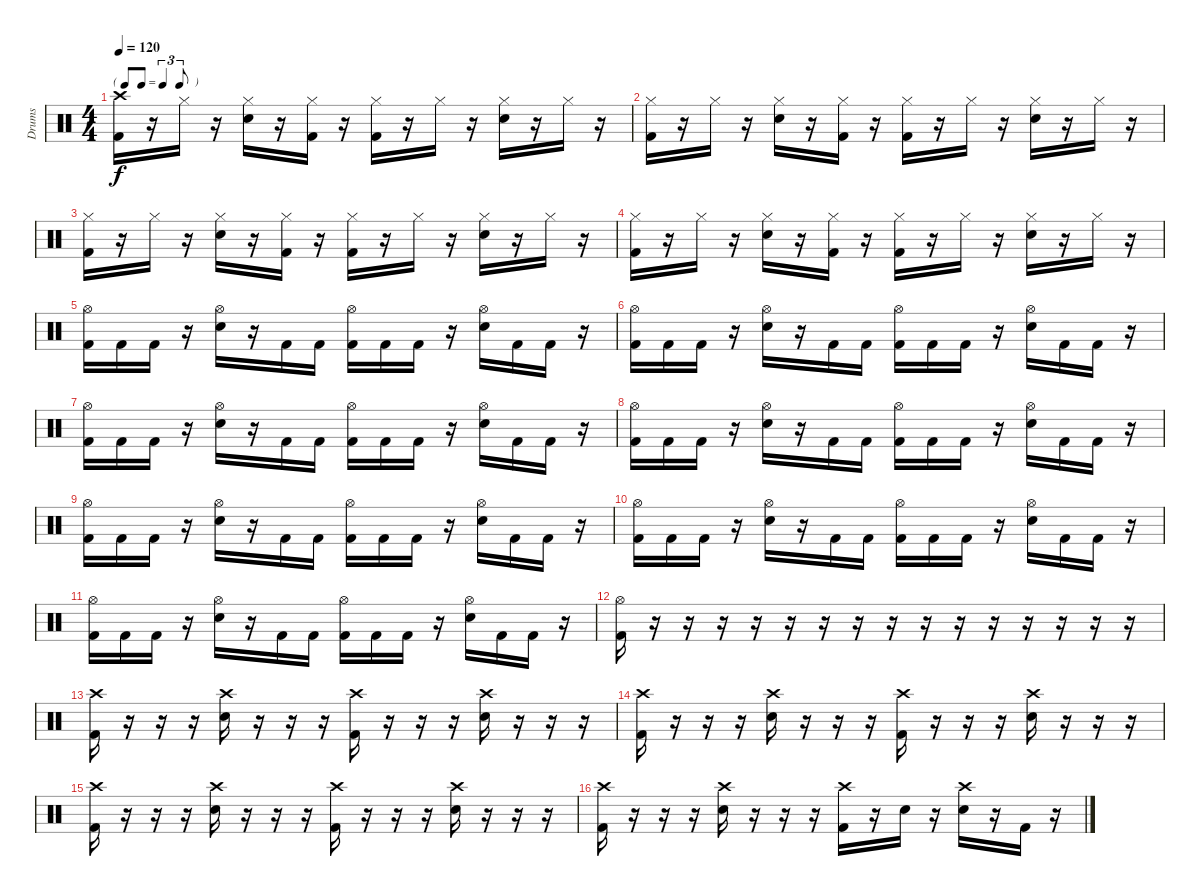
\track ("Drums" "Drums") {instrument percussion}
\staff {score}
\articulation defaults
\ts (4 4)
\tf triplet8th
\tempo 120
\clef neutral
\ks c
("Crash high (hit)" "Kick (hit) 2").16{dy f} r.16 "Hi-Hat (closed)".16 r.16 ("Hi-Hat (closed)" "Electric Snare (hit)").16 r.16 ("Hi-Hat (closed)" "Kick (hit) 2").16 r.16 ("Hi-Hat (closed)" "Kick (hit) 2").16 r.16 "Hi-Hat (closed)".16 r.16 ("Hi-Hat (closed)" "Electric Snare (hit)").16 r.16 "Hi-Hat (closed)".16 r.16 |
("Hi-Hat (closed)" "Kick (hit) 2").16 r.16 "Hi-Hat (closed)".16 r.16 ("Hi-Hat (closed)" "Electric Snare (hit)").16 r.16 ("Hi-Hat (closed)" "Kick (hit) 2").16 r.16 ("Hi-Hat (closed)" "Kick (hit) 2").16 r.16 "Hi-Hat (closed)".16 r.16 ("Hi-Hat (closed)" "Electric Snare (hit)").16 r.16 "Hi-Hat (closed)".16 r.16 |
("Hi-Hat (closed)" "Kick (hit) 2").16 r.16 "Hi-Hat (closed)".16 r.16 ("Hi-Hat (closed)" "Electric Snare (hit)").16 r.16 ("Hi-Hat (closed)" "Kick (hit) 2").16 r.16 ("Hi-Hat (closed)" "Kick (hit) 2").16 r.16 "Hi-Hat (closed)".16 r.16 ("Hi-Hat (closed)" "Electric Snare (hit)").16 r.16 "Hi-Hat (closed)".16 r.16 |
("Hi-Hat (closed)" "Kick (hit) 2").16 r.16 "Hi-Hat (closed)".16 r.16 ("Hi-Hat (closed)" "Electric Snare (hit)").16 r.16 ("Hi-Hat (closed)" "Kick (hit) 2").16 r.16 ("Hi-Hat (closed)" "Kick (hit) 2").16 r.16 "Hi-Hat (closed)".16 r.16 ("Hi-Hat (closed)" "Electric Snare (hit)").16 r.16 "Hi-Hat (closed)".16 r.16 |
("Hi-Hat (open)" "Kick (hit) 2").16 "Kick (hit) 2".16 "Kick (hit) 2".16 r.16 ("Hi-Hat (open)" "Electric Snare (hit)").16 r.16 "Kick (hit) 2".16 "Kick (hit) 2".16 ("Hi-Hat (open)" "Kick (hit) 2").16 "Kick (hit) 2".16 "Kick (hit) 2".16 r.16 ("Hi-Hat (open)" "Electric Snare (hit)").16 "Kick (hit) 2".16 "Kick (hit) 2".16 r.16 |
("Hi-Hat (open)" "Kick (hit) 2").16 "Kick (hit) 2".16 "Kick (hit) 2".16 r.16 ("Hi-Hat (open)" "Electric Snare (hit)").16 r.16 "Kick (hit) 2".16 "Kick (hit) 2".16 ("Hi-Hat (open)" "Kick (hit) 2").16 "Kick (hit) 2".16 "Kick (hit) 2".16 r.16 ("Hi-Hat (open)" "Electric Snare (hit)").16 "Kick (hit) 2".16 "Kick (hit) 2".16 r.16 |
("Hi-Hat (open)" "Kick (hit) 2").16 "Kick (hit) 2".16 "Kick (hit) 2".16 r.16 ("Hi-Hat (open)" "Electric Snare (hit)").16 r.16 "Kick (hit) 2".16 "Kick (hit) 2".16 ("Hi-Hat (open)" "Kick (hit) 2").16 "Kick (hit) 2".16 "Kick (hit) 2".16 r.16 ("Hi-Hat (open)" "Electric Snare (hit)").16 "Kick (hit) 2".16 "Kick (hit) 2".16 r.16 |
("Hi-Hat (open)" "Kick (hit) 2").16 "Kick (hit) 2".16 "Kick (hit) 2".16 r.16 ("Hi-Hat (open)" "Electric Snare (hit)").16 r.16 "Kick (hit) 2".16 "Kick (hit) 2".16 ("Hi-Hat (open)" "Kick (hit) 2").16 "Kick (hit) 2".16 "Kick (hit) 2".16 r.16 ("Hi-Hat (open)" "Electric Snare (hit)").16 "Kick (hit) 2".16 "Kick (hit) 2".16 r.16 |
("Hi-Hat (open)" "Kick (hit) 2").16 "Kick (hit) 2".16 "Kick (hit) 2".16 r.16 ("Hi-Hat (open)" "Electric Snare (hit)").16 r.16 "Kick (hit) 2".16 "Kick (hit) 2".16 ("Hi-Hat (open)" "Kick (hit) 2").16 "Kick (hit) 2".16 "Kick (hit) 2".16 r.16 ("Hi-Hat (open)" "Electric Snare (hit)").16 "Kick (hit) 2".16 "Kick (hit) 2".16 r.16 |
("Hi-Hat (open)" "Kick (hit) 2").16 "Kick (hit) 2".16 "Kick (hit) 2".16 r.16 ("Hi-Hat (open)" "Electric Snare (hit)").16 r.16 "Kick (hit) 2".16 "Kick (hit) 2".16 ("Hi-Hat (open)" "Kick (hit) 2").16 "Kick (hit) 2".16 "Kick (hit) 2".16 r.16 ("Hi-Hat (open)" "Electric Snare (hit)").16 "Kick (hit) 2".16 "Kick (hit) 2".16 r.16 |
("Hi-Hat (open)" "Kick (hit) 2").16 "Kick (hit) 2".16 "Kick (hit) 2".16 r.16 ("Hi-Hat (open)" "Electric Snare (hit)").16 r.16 "Kick (hit) 2".16 "Kick (hit) 2".16 ("Hi-Hat (open)" "Kick (hit) 2").16 "Kick (hit) 2".16 "Kick (hit) 2".16 r.16 ("Hi-Hat (open)" "Electric Snare (hit)").16 "Kick (hit) 2".16 "Kick (hit) 2".16 r.16 |
("Hi-Hat (open)" "Kick (hit) 2").16 r.16 r.16 r.16 r.16 r.16 r.16 r.16 r.16 r.16 r.16 r.16 r.16 r.16 r.16 r.16 |
("Crash high (hit)" "Kick (hit) 2").16 r.16 r.16 r.16 ("Crash high (hit)" "Electric Snare (hit)").16 r.16 r.16 r.16 ("Crash high (hit)" "Kick (hit) 2").16 r.16 r.16 r.16 ("Crash high (hit)" "Electric Snare (hit)").16 r.16 r.16 r.16 |
("Crash high (hit)" "Kick (hit) 2").16 r.16 r.16 r.16 ("Crash high (hit)" "Electric Snare (hit)").16 r.16 r.16 r.16 ("Crash high (hit)" "Kick (hit) 2").16 r.16 r.16 r.16 ("Crash high (hit)" "Electric Snare (hit)").16 r.16 r.16 r.16 |
("Crash high (hit)" "Kick (hit) 2").16 r.16 r.16 r.16 ("Crash high (hit)" "Electric Snare (hit)").16 r.16 r.16 r.16 ("Crash high (hit)" "Kick (hit) 2").16 r.16 r.16 r.16 ("Crash high (hit)" "Electric Snare (hit)").16 r.16 r.16 r.16 |
("Crash high (hit)" "Kick (hit) 2").16 r.16 r.16 r.16 ("Crash high (hit)" "Electric Snare (hit)").16 r.16 r.16 r.16 ("Crash high (hit)" "Kick (hit) 2").16 r.16 "Electric Snare (hit)".16 r.16 ("Crash high (hit)" "Electric Snare (hit)").16 r.16 "Kick (hit) 2".16 r.16
